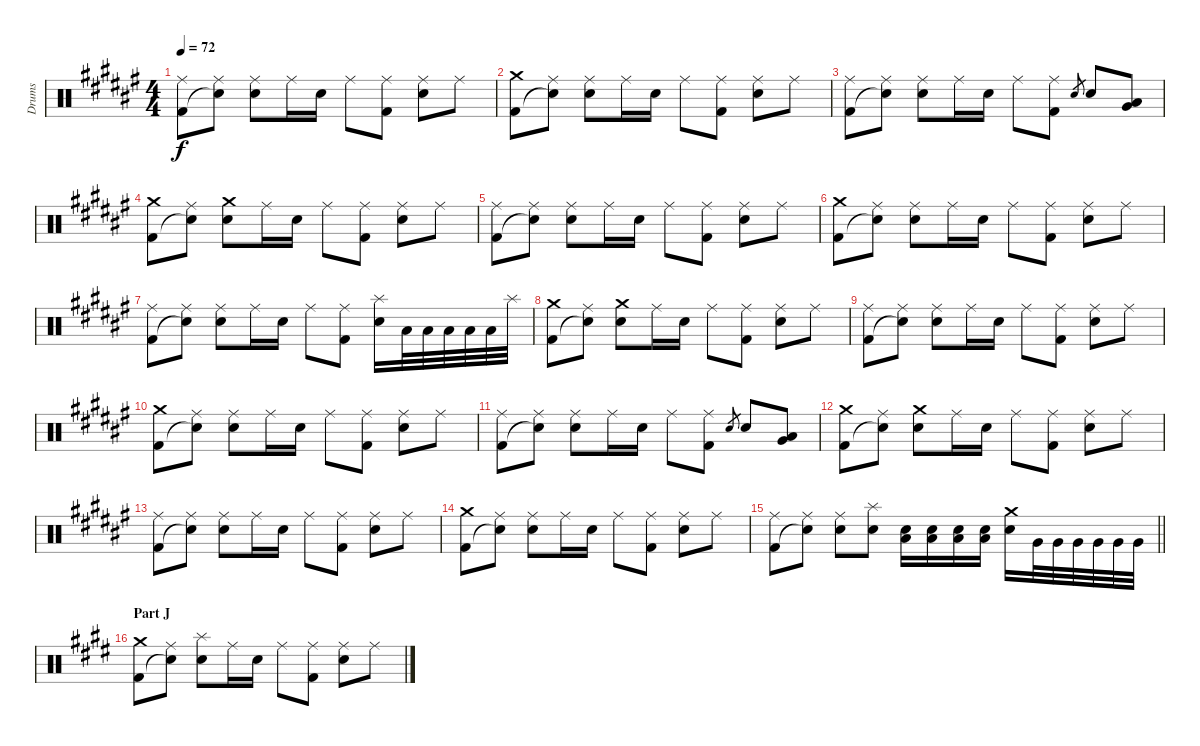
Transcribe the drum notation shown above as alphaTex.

\track ("Drums" "Drums") {instrument percussion}
\staff {score}
\articulation defaults
\ts (4 4)
\tempo 72
\clef neutral
\ks f#
("Ride (middle)" "Kick (hit) 2").8{dy f} ("Ride (middle)" "Snare (hit)"{t}).8 ("Ride (middle)" "Electric Snare (hit)").8 "Ride (middle)".16 "Electric Snare (hit)".16 "Ride (middle)".8 ("Ride (middle)" "Kick (hit) 2").8 ("Ride (middle)" "Electric Snare (hit)").8 "Ride (middle)".8 |
("Crash medium (hit)" "Kick (hit) 2").8 ("Ride (middle)" "Snare (hit)"{t}).8 ("Ride (middle)" "Electric Snare (hit)").8 "Ride (middle)".16 "Electric Snare (hit)".16 "Ride (middle)".8 ("Ride (middle)" "Kick (hit) 2").8 ("Ride (middle)" "Electric Snare (hit)").8 "Ride (middle)".8 |
("Ride (middle)" "Kick (hit) 2").8 ("Ride (middle)" "Snare (hit)"{t}).8 ("Ride (middle)" "Electric Snare (hit)").8 "Ride (middle)".16 "Electric Snare (hit)".16 "Ride (middle)".8 ("Ride (middle)" "Kick (hit) 2").8 "Electric Snare (hit)".8{gr} "Electric Snare (hit)".8 ("Very Low Tom (hit)" "Low Floor Tom (hit)").8 |
("Crash medium (hit)" "Kick (hit) 2").8 ("Ride (middle)" "Snare (hit)"{t}).8 ("Crash medium (hit)" "Electric Snare (hit)").8 "Ride (middle)".16 "Electric Snare (hit)".16 "Ride (middle)".8 ("Ride (middle)" "Kick (hit) 2").8 ("Ride (middle)" "Electric Snare (hit)").8 "Ride (middle)".8 |
("Ride (middle)" "Kick (hit) 2").8 ("Ride (middle)" "Snare (hit)"{t}).8 ("Ride (middle)" "Electric Snare (hit)").8 "Ride (middle)".16 "Electric Snare (hit)".16 "Ride (middle)".8 ("Ride (middle)" "Kick (hit) 2").8 ("Ride (middle)" "Electric Snare (hit)").8 "Ride (middle)".8 |
("Crash medium (hit)" "Kick (hit) 2").8 ("Ride (middle)" "Snare (hit)"{t}).8 ("Ride (middle)" "Electric Snare (hit)").8 "Ride (middle)".16 "Electric Snare (hit)".16 "Ride (middle)".8 ("Ride (middle)" "Kick (hit) 2").8 ("Ride (middle)" "Electric Snare (hit)").8 "Ride (middle)".8 |
("Ride (middle)" "Kick (hit) 2").8 ("Ride (middle)" "Snare (hit)"{t}).8 ("Ride (middle)" "Electric Snare (hit)").8 "Ride (middle)".16 "Electric Snare (hit)".16 "Ride (middle)".8 ("Ride (middle)" "Kick (hit) 2").8 ("Splash (hit)" "Electric Snare (hit)").16 "Low Tom (hit)".32 "Low Tom (hit)".32 "Low Tom (hit)".32 "Low Tom (hit)".32 "Low Tom (hit)".32 "Splash (hit)".32 |
("Crash medium (hit)" "Kick (hit) 2").8 ("Ride (middle)" "Snare (hit)"{t}).8 ("Crash medium (hit)" "Electric Snare (hit)").8 "Ride (middle)".16 "Electric Snare (hit)".16 "Ride (middle)".8 ("Ride (middle)" "Kick (hit) 2").8 ("Ride (middle)" "Electric Snare (hit)").8 "Ride (middle)".8 |
("Ride (middle)" "Kick (hit) 2").8 ("Ride (middle)" "Snare (hit)"{t}).8 ("Ride (middle)" "Electric Snare (hit)").8 "Ride (middle)".16 "Electric Snare (hit)".16 "Ride (middle)".8 ("Ride (middle)" "Kick (hit) 2").8 ("Ride (middle)" "Electric Snare (hit)").8 "Ride (middle)".8 |
("Crash medium (hit)" "Kick (hit) 2").8 ("Ride (middle)" "Snare (hit)"{t}).8 ("Ride (middle)" "Electric Snare (hit)").8 "Ride (middle)".16 "Electric Snare (hit)".16 "Ride (middle)".8 ("Ride (middle)" "Kick (hit) 2").8 ("Ride (middle)" "Electric Snare (hit)").8 "Ride (middle)".8 |
("Ride (middle)" "Kick (hit) 2").8 ("Ride (middle)" "Snare (hit)"{t}).8 ("Ride (middle)" "Electric Snare (hit)").8 "Ride (middle)".16 "Electric Snare (hit)".16 "Ride (middle)".8 ("Ride (middle)" "Kick (hit) 2").8 "Electric Snare (hit)".8{gr} "Electric Snare (hit)".8 ("Very Low Tom (hit)" "Low Floor Tom (hit)").8 |
("Crash medium (hit)" "Kick (hit) 2").8 ("Ride (middle)" "Snare (hit)"{t}).8 ("Crash medium (hit)" "Electric Snare (hit)").8 "Ride (middle)".16 "Electric Snare (hit)".16 "Ride (middle)".8 ("Ride (middle)" "Kick (hit) 2").8 ("Ride (middle)" "Electric Snare (hit)").8 "Ride (middle)".8 |
("Ride (middle)" "Kick (hit) 2").8 ("Ride (middle)" "Snare (hit)"{t}).8 ("Ride (middle)" "Electric Snare (hit)").8 "Ride (middle)".16 "Electric Snare (hit)".16 "Ride (middle)".8 ("Ride (middle)" "Kick (hit) 2").8 ("Ride (middle)" "Electric Snare (hit)").8 "Ride (middle)".8 |
("Crash medium (hit)" "Kick (hit) 2").8 ("Ride (middle)" "Snare (hit)"{t}).8 ("Ride (middle)" "Electric Snare (hit)").8 "Ride (middle)".16 "Electric Snare (hit)".16 "Ride (middle)".8 ("Ride (middle)" "Kick (hit) 2").8 ("Ride (middle)" "Electric Snare (hit)").8 "Ride (middle)".8 |
\barLineRight lightlight
("Ride (middle)" "Kick (hit) 2").8 ("Ride (middle)" "Snare (hit)"{t}).8 ("Ride (middle)" "Electric Snare (hit)").8 ("Splash (hit)" "Electric Snare (hit)").8 ("Electric Snare (hit)" "Low Floor Tom (hit)").16 ("Electric Snare (hit)" "Low Floor Tom (hit)").16 ("Electric Snare (hit)" "Low Floor Tom (hit)").16 ("Electric Snare (hit)" "Low Floor Tom (hit)").16 ("Crash medium (hit)" "Electric Snare (hit)").16 "Very Low Tom (hit)".32 "Very Low Tom (hit)".32 "Very Low Tom (hit)".32 "Very Low Tom (hit)".32 "Very Low Tom (hit)".32 "Very Low Tom (hit)".32 |
\section ("" "Part J")
\ks e
("Crash medium (hit)" "Kick (hit) 2").8 ("Ride (middle)" "Snare (hit)"{t}).8 ("Splash (hit)" "Electric Snare (hit)").8 "Ride (middle)".16 "Electric Snare (hit)".16 "Ride (middle)".8 ("Ride (middle)" "Kick (hit) 2").8 ("Ride (middle)" "Electric Snare (hit)").8 "Ride (middle)".8
